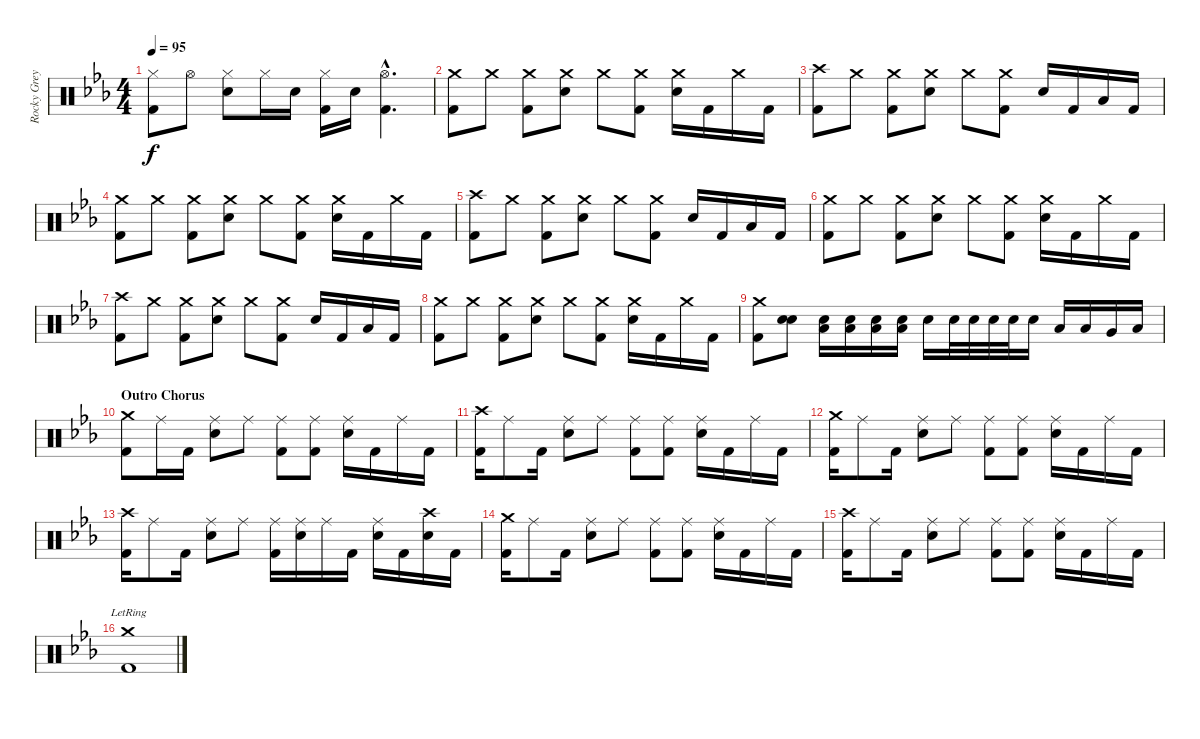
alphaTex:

\track ("Rocky Grey" "Rocky Grey") {instrument percussion}
\staff {score}
\articulation defaults
\ts (4 4)
\tempo 95
\clef neutral
\ks eb
("Hi-Hat (closed)" "Kick (hit) 2").8{dy f} "Hi-Hat (open)".8 ("Hi-Hat (closed)" "Snare (hit) 2").8 "Hi-Hat (closed)".16 "Snare (hit) 2".16 ("Hi-Hat (closed)" "Kick (hit) 2").16 "Snare (hit) 2".16 ("Hi-Hat (open)"{hac} "Kick (hit) 2"{hac}).4{d} |
("Crash medium (hit)" "Kick (hit) 2").8 "Crash medium (hit)".8 ("Crash medium (hit)" "Kick (hit) 2").8 ("Crash medium (hit)" "Snare (hit) 2").8 "Crash medium (hit)".8 ("Crash medium (hit)" "Kick (hit) 2").8 ("Crash medium (hit)" "Snare (hit) 2").16 "Kick (hit) 2".16 "Crash medium (hit)".16 "Kick (hit) 2".16 |
("Crash high (hit)" "Kick (hit) 2").8 "Crash medium (hit)".8 ("Crash medium (hit)" "Kick (hit) 2").8 ("Crash medium (hit)" "Snare (hit) 2").8 "Crash medium (hit)".8 ("Crash medium (hit)" "Kick (hit) 2").8 "Snare (hit) 2".16 "Kick (hit) 2".16 "Low Floor Tom (hit)".16 "Kick (hit) 2".16 |
("Crash medium (hit)" "Kick (hit) 2").8 "Crash medium (hit)".8 ("Crash medium (hit)" "Kick (hit) 2").8 ("Crash medium (hit)" "Snare (hit) 2").8 "Crash medium (hit)".8 ("Crash medium (hit)" "Kick (hit) 2").8 ("Crash medium (hit)" "Snare (hit) 2").16 "Kick (hit) 2".16 "Crash medium (hit)".16 "Kick (hit) 2".16 |
("Crash high (hit)" "Kick (hit) 2").8 "Crash medium (hit)".8 ("Crash medium (hit)" "Kick (hit) 2").8 ("Crash medium (hit)" "Snare (hit) 2").8 "Crash medium (hit)".8 ("Crash medium (hit)" "Kick (hit) 2").8 "Snare (hit) 2".16 "Kick (hit) 2".16 "Low Floor Tom (hit)".16 "Kick (hit) 2".16 |
("Crash medium (hit)" "Kick (hit) 2").8 "Crash medium (hit)".8 ("Crash medium (hit)" "Kick (hit) 2").8 ("Crash medium (hit)" "Snare (hit) 2").8 "Crash medium (hit)".8 ("Crash medium (hit)" "Kick (hit) 2").8 ("Crash medium (hit)" "Snare (hit) 2").16 "Kick (hit) 2".16 "Crash medium (hit)".16 "Kick (hit) 2".16 |
("Crash high (hit)" "Kick (hit) 2").8 "Crash medium (hit)".8 ("Crash medium (hit)" "Kick (hit) 2").8 ("Crash medium (hit)" "Snare (hit) 2").8 "Crash medium (hit)".8 ("Crash medium (hit)" "Kick (hit) 2").8 "Snare (hit) 2".16 "Kick (hit) 2".16 "Low Floor Tom (hit)".16 "Kick (hit) 2".16 |
("Crash medium (hit)" "Kick (hit) 2").8 "Crash medium (hit)".8 ("Crash medium (hit)" "Kick (hit) 2").8 ("Crash medium (hit)" "Snare (hit) 2").8 "Crash medium (hit)".8 ("Crash medium (hit)" "Kick (hit) 2").8 ("Crash medium (hit)" "Snare (hit) 2").16 "Kick (hit) 2".16 "Crash medium (hit)".16 "Kick (hit) 2".16 |
("Crash medium (hit)" "Kick (hit) 2").8 ("Snare (hit) 2" "Snare (hit) 2").8 ("Snare (hit) 2" "Low Floor Tom (hit)").16 ("Snare (hit) 2" "Low Floor Tom (hit)").16 ("Snare (hit) 2" "Low Floor Tom (hit)").16 ("Snare (hit) 2" "Low Floor Tom (hit)").16 "Snare (hit) 2".16 "Snare (hit) 2".32 "Snare (hit) 2".32 "Snare (hit) 2".32 "Snare (hit) 2".32 "Snare (hit) 2".16 "Low Tom (hit)".16 "Low Tom (hit)".16 "Very Low Tom (hit)".16 "Low Floor Tom (hit)".16 |
\section ("" "Outro Chorus")
("Crash medium (hit)" "Kick (hit) 2").8 "Ride (middle)".16 "Kick (hit) 2".16 ("Ride (middle)" "Snare (hit) 2").8 "Ride (middle)".8 ("Ride (middle)" "Kick (hit) 2").8 ("Ride (middle)" "Kick (hit) 2").8 ("Ride (middle)" "Snare (hit) 2").16 "Kick (hit) 2".16 "Ride (middle)".16 "Kick (hit) 2".16 |
("Crash high (hit)" "Kick (hit) 2").16 "Ride (middle)".8 "Kick (hit) 2".16 ("Ride (middle)" "Snare (hit) 2").8 "Ride (middle)".8 ("Ride (middle)" "Kick (hit) 2").8 ("Ride (middle)" "Kick (hit) 2").8 ("Ride (middle)" "Snare (hit) 2").16 "Kick (hit) 2".16 "Ride (middle)".16 "Kick (hit) 2".16 |
("Crash medium (hit)" "Kick (hit) 2").16 "Ride (middle)".8 "Kick (hit) 2".16 ("Ride (middle)" "Snare (hit) 2").8 "Ride (middle)".8 ("Ride (middle)" "Kick (hit) 2").8 ("Ride (middle)" "Kick (hit) 2").8 ("Ride (middle)" "Snare (hit) 2").16 "Kick (hit) 2".16 "Ride (middle)".16 "Kick (hit) 2".16 |
("Crash high (hit)" "Kick (hit) 2").16 "Ride (middle)".8 "Kick (hit) 2".16 ("Ride (middle)" "Snare (hit) 2").8 "Ride (middle)".8 ("Ride (middle)" "Kick (hit) 2").16 ("Ride (middle)" "Snare (hit) 2").16 "Ride (middle)".16 "Kick (hit) 2".16 ("Ride (middle)" "Snare (hit) 2").16 "Kick (hit) 2".16 ("Crash high (hit)" "Snare (hit) 2").16 "Kick (hit) 2".16 |
("Crash medium (hit)" "Kick (hit) 2").16 "Ride (middle)".8 "Kick (hit) 2".16 ("Ride (middle)" "Snare (hit) 2").8 "Ride (middle)".8 ("Ride (middle)" "Kick (hit) 2").8 ("Ride (middle)" "Kick (hit) 2").8 ("Ride (middle)" "Snare (hit) 2").16 "Kick (hit) 2".16 "Ride (middle)".16 "Kick (hit) 2".16 |
("Crash high (hit)" "Kick (hit) 2").16 "Ride (middle)".8 "Kick (hit) 2".16 ("Ride (middle)" "Snare (hit) 2").8 "Ride (middle)".8 ("Ride (middle)" "Kick (hit) 2").8 ("Ride (middle)" "Kick (hit) 2").8 ("Ride (middle)" "Snare (hit) 2").16 "Kick (hit) 2".16 "Ride (middle)".16 "Kick (hit) 2".16 |
("Crash medium (hit)"{lr} "Kick (hit) 2").1
